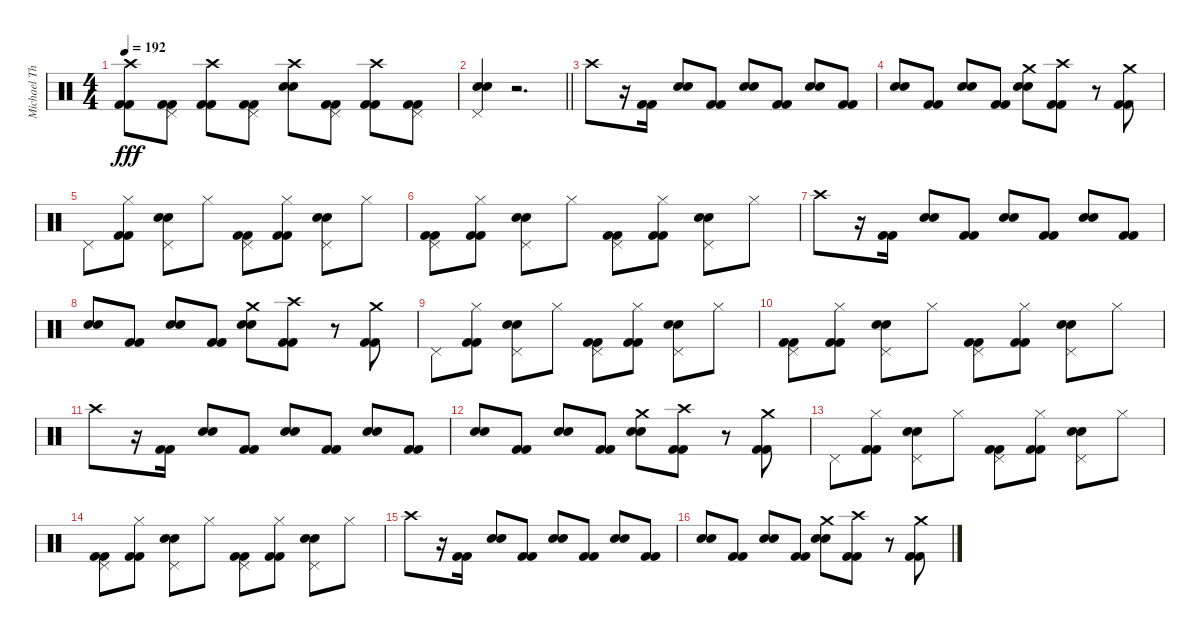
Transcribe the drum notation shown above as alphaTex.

\track ("Michael Thomas" "Michael Th") {instrument percussion}
\staff {score}
\articulation defaults
\ts (4 4)
\tempo 192
\clef neutral
\ks c
("Crash high (hit)" "Kick (hit) 2" "Kick (hit) 2").8{dy fff} ("Pedal Hi-Hat (hit)" "Kick (hit) 2" "Kick (hit) 2").8 ("Crash high (hit)" "Kick (hit) 2" "Kick (hit) 2").8 ("Pedal Hi-Hat (hit)" "Kick (hit) 2" "Kick (hit) 2").8 ("Crash high (hit)" "Snare (hit) 2" "Electric Snare (hit)").8 ("Pedal Hi-Hat (hit)" "Kick (hit) 2" "Kick (hit) 2").8 ("Crash high (hit)" "Kick (hit) 2" "Kick (hit) 2").8 ("Pedal Hi-Hat (hit)" "Kick (hit) 2" "Kick (hit) 2").8 |
\barLineRight lightlight
("Pedal Hi-Hat (hit)" "Snare (hit) 2" "Electric Snare (hit)").4 r.2{d} |
"Crash high (hit)".8 r.16 ("Kick (hit) 2" "Kick (hit) 2").16 ("Snare (hit) 2" "Electric Snare (hit)").8 ("Kick (hit) 2" "Kick (hit) 2").8 ("Snare (hit) 2" "Electric Snare (hit)").8 ("Kick (hit) 2" "Kick (hit) 2").8 ("Snare (hit) 2" "Electric Snare (hit)").8 ("Kick (hit) 2" "Kick (hit) 2").8 |
("Snare (hit) 2" "Electric Snare (hit)").8 ("Kick (hit) 2" "Kick (hit) 2").8 ("Snare (hit) 2" "Electric Snare (hit)").8 ("Kick (hit) 2" "Kick (hit) 2").8 ("Crash medium (hit)" "Snare (hit) 2" "Electric Snare (hit)").8 ("Crash high (hit)" "Kick (hit) 2" "Kick (hit) 2").8 r.8 ("Crash medium (hit)" "Kick (hit) 2" "Kick (hit) 2").8 |
"Pedal Hi-Hat (hit)".8 ("Hi-Hat (closed)" "Kick (hit) 2" "Kick (hit) 2").8 ("Pedal Hi-Hat (hit)" "Snare (hit) 2" "Electric Snare (hit)").8 "Hi-Hat (closed)".8 ("Pedal Hi-Hat (hit)" "Kick (hit) 2" "Kick (hit) 2").8 ("Hi-Hat (closed)" "Kick (hit) 2" "Kick (hit) 2").8 ("Pedal Hi-Hat (hit)" "Snare (hit) 2" "Electric Snare (hit)").8 "Hi-Hat (closed)".8 |
("Pedal Hi-Hat (hit)" "Kick (hit) 2" "Kick (hit) 2").8 ("Hi-Hat (closed)" "Kick (hit) 2" "Kick (hit) 2").8 ("Pedal Hi-Hat (hit)" "Snare (hit) 2" "Electric Snare (hit)").8 "Hi-Hat (closed)".8 ("Pedal Hi-Hat (hit)" "Kick (hit) 2" "Kick (hit) 2").8 ("Hi-Hat (closed)" "Kick (hit) 2" "Kick (hit) 2").8 ("Pedal Hi-Hat (hit)" "Snare (hit) 2" "Electric Snare (hit)").8 "Hi-Hat (closed)".8 |
"Crash high (hit)".8 r.16 ("Kick (hit) 2" "Kick (hit) 2").16 ("Snare (hit) 2" "Electric Snare (hit)").8 ("Kick (hit) 2" "Kick (hit) 2").8 ("Snare (hit) 2" "Electric Snare (hit)").8 ("Kick (hit) 2" "Kick (hit) 2").8 ("Snare (hit) 2" "Electric Snare (hit)").8 ("Kick (hit) 2" "Kick (hit) 2").8 |
("Snare (hit) 2" "Electric Snare (hit)").8 ("Kick (hit) 2" "Kick (hit) 2").8 ("Snare (hit) 2" "Electric Snare (hit)").8 ("Kick (hit) 2" "Kick (hit) 2").8 ("Crash medium (hit)" "Snare (hit) 2" "Electric Snare (hit)").8 ("Crash high (hit)" "Kick (hit) 2" "Kick (hit) 2").8 r.8 ("Crash medium (hit)" "Kick (hit) 2" "Kick (hit) 2").8 |
"Pedal Hi-Hat (hit)".8 ("Hi-Hat (closed)" "Kick (hit) 2" "Kick (hit) 2").8 ("Pedal Hi-Hat (hit)" "Snare (hit) 2" "Electric Snare (hit)").8 "Hi-Hat (closed)".8 ("Pedal Hi-Hat (hit)" "Kick (hit) 2" "Kick (hit) 2").8 ("Hi-Hat (closed)" "Kick (hit) 2" "Kick (hit) 2").8 ("Pedal Hi-Hat (hit)" "Snare (hit) 2" "Electric Snare (hit)").8 "Hi-Hat (closed)".8 |
("Pedal Hi-Hat (hit)" "Kick (hit) 2" "Kick (hit) 2").8 ("Hi-Hat (closed)" "Kick (hit) 2" "Kick (hit) 2").8 ("Pedal Hi-Hat (hit)" "Snare (hit) 2" "Electric Snare (hit)").8 "Hi-Hat (closed)".8 ("Pedal Hi-Hat (hit)" "Kick (hit) 2" "Kick (hit) 2").8 ("Hi-Hat (closed)" "Kick (hit) 2" "Kick (hit) 2").8 ("Pedal Hi-Hat (hit)" "Snare (hit) 2" "Electric Snare (hit)").8 "Hi-Hat (closed)".8 |
"Crash high (hit)".8 r.16 ("Kick (hit) 2" "Kick (hit) 2").16 ("Snare (hit) 2" "Electric Snare (hit)").8 ("Kick (hit) 2" "Kick (hit) 2").8 ("Snare (hit) 2" "Electric Snare (hit)").8 ("Kick (hit) 2" "Kick (hit) 2").8 ("Snare (hit) 2" "Electric Snare (hit)").8 ("Kick (hit) 2" "Kick (hit) 2").8 |
("Snare (hit) 2" "Electric Snare (hit)").8 ("Kick (hit) 2" "Kick (hit) 2").8 ("Snare (hit) 2" "Electric Snare (hit)").8 ("Kick (hit) 2" "Kick (hit) 2").8 ("Crash medium (hit)" "Snare (hit) 2" "Electric Snare (hit)").8 ("Crash high (hit)" "Kick (hit) 2" "Kick (hit) 2").8 r.8 ("Crash medium (hit)" "Kick (hit) 2" "Kick (hit) 2").8 |
"Pedal Hi-Hat (hit)".8 ("Hi-Hat (closed)" "Kick (hit) 2" "Kick (hit) 2").8 ("Pedal Hi-Hat (hit)" "Snare (hit) 2" "Electric Snare (hit)").8 "Hi-Hat (closed)".8 ("Pedal Hi-Hat (hit)" "Kick (hit) 2" "Kick (hit) 2").8 ("Hi-Hat (closed)" "Kick (hit) 2" "Kick (hit) 2").8 ("Pedal Hi-Hat (hit)" "Snare (hit) 2" "Electric Snare (hit)").8 "Hi-Hat (closed)".8 |
("Pedal Hi-Hat (hit)" "Kick (hit) 2" "Kick (hit) 2").8 ("Hi-Hat (closed)" "Kick (hit) 2" "Kick (hit) 2").8 ("Pedal Hi-Hat (hit)" "Snare (hit) 2" "Electric Snare (hit)").8 "Hi-Hat (closed)".8 ("Pedal Hi-Hat (hit)" "Kick (hit) 2" "Kick (hit) 2").8 ("Hi-Hat (closed)" "Kick (hit) 2" "Kick (hit) 2").8 ("Pedal Hi-Hat (hit)" "Snare (hit) 2" "Electric Snare (hit)").8 "Hi-Hat (closed)".8 |
"Crash high (hit)".8 r.16 ("Kick (hit) 2" "Kick (hit) 2").16 ("Snare (hit) 2" "Electric Snare (hit)").8 ("Kick (hit) 2" "Kick (hit) 2").8 ("Snare (hit) 2" "Electric Snare (hit)").8 ("Kick (hit) 2" "Kick (hit) 2").8 ("Snare (hit) 2" "Electric Snare (hit)").8 ("Kick (hit) 2" "Kick (hit) 2").8 |
("Snare (hit) 2" "Electric Snare (hit)").8 ("Kick (hit) 2" "Kick (hit) 2").8 ("Snare (hit) 2" "Electric Snare (hit)").8 ("Kick (hit) 2" "Kick (hit) 2").8 ("Crash medium (hit)" "Snare (hit) 2" "Electric Snare (hit)").8 ("Crash high (hit)" "Kick (hit) 2" "Kick (hit) 2").8 r.8 ("Crash medium (hit)" "Kick (hit) 2" "Kick (hit) 2").8
